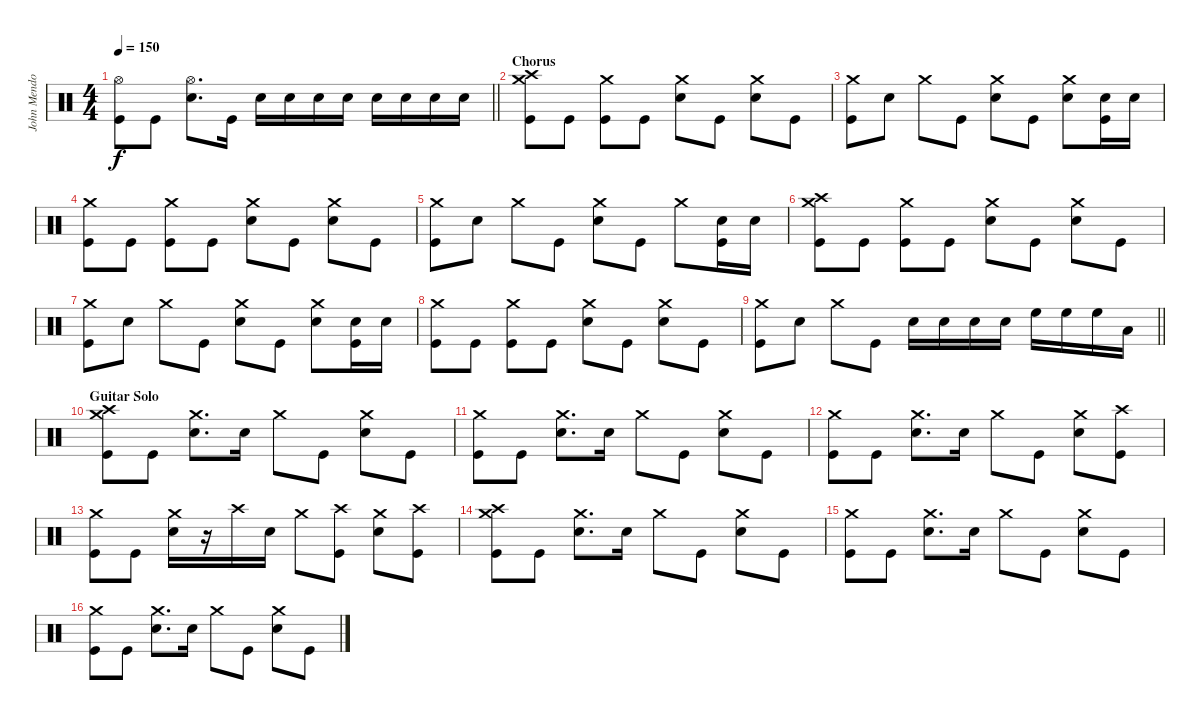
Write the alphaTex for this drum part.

\track ("John Mendoza" "John Mendo") {instrument percussion}
\staff {score}
\articulation defaults
\ts (4 4)
\tempo 150
\clef neutral
\barLineRight lightlight
\ks c
("Hi-Hat (open)" "Kick (hit)").8{dy f} "Kick (hit)".8 ("Hi-Hat (open)" "Snare (hit) 2").8{d} "Kick (hit)".16 "Snare (hit) 2".16 "Snare (hit) 2".16 "Snare (hit) 2".16 "Snare (hit) 2".16 "Snare (hit) 2".16 "Snare (hit) 2".16 "Snare (hit) 2".16 "Snare (hit) 2".16 |
\section ("" "Chorus")
("Crash medium (hit)" "Crash high (hit)" "Kick (hit)").8 "Kick (hit)".8 ("Crash medium (hit)" "Kick (hit)").8 "Kick (hit)".8 ("Crash medium (hit)" "Snare (hit) 2").8 "Kick (hit)".8 ("Crash medium (hit)" "Snare (hit) 2").8 "Kick (hit)".8 |
("Crash medium (hit)" "Kick (hit)").8 "Snare (hit) 2".8 "Crash medium (hit)".8 "Kick (hit)".8 ("Crash medium (hit)" "Snare (hit) 2").8 "Kick (hit)".8 ("Crash medium (hit)" "Snare (hit) 2").8 ("Snare (hit) 2" "Kick (hit)").16 "Snare (hit) 2".16 |
("Crash medium (hit)" "Kick (hit)").8 "Kick (hit)".8 ("Crash medium (hit)" "Kick (hit)").8 "Kick (hit)".8 ("Crash medium (hit)" "Snare (hit) 2").8 "Kick (hit)".8 ("Crash medium (hit)" "Snare (hit) 2").8 "Kick (hit)".8 |
("Crash medium (hit)" "Kick (hit)").8 "Snare (hit) 2".8 "Crash medium (hit)".8 "Kick (hit)".8 ("Crash medium (hit)" "Snare (hit) 2").8 "Kick (hit)".8 "Crash medium (hit)".8 ("Snare (hit) 2" "Kick (hit)").16 "Snare (hit) 2".16 |
("Crash medium (hit)" "Crash high (hit)" "Kick (hit)").8 "Kick (hit)".8 ("Crash medium (hit)" "Kick (hit)").8 "Kick (hit)".8 ("Crash medium (hit)" "Snare (hit) 2").8 "Kick (hit)".8 ("Crash medium (hit)" "Snare (hit) 2").8 "Kick (hit)".8 |
("Crash medium (hit)" "Kick (hit)").8 "Snare (hit) 2".8 "Crash medium (hit)".8 "Kick (hit)".8 ("Crash medium (hit)" "Snare (hit) 2").8 "Kick (hit)".8 ("Crash medium (hit)" "Snare (hit) 2").8 ("Snare (hit) 2" "Kick (hit)").16 "Snare (hit) 2".16 |
("Crash medium (hit)" "Kick (hit)").8 "Kick (hit)".8 ("Crash medium (hit)" "Kick (hit)").8 "Kick (hit)".8 ("Crash medium (hit)" "Snare (hit) 2").8 "Kick (hit)".8 ("Crash medium (hit)" "Snare (hit) 2").8 "Kick (hit)".8 |
\barLineRight lightlight
("Crash medium (hit)" "Kick (hit)").8 "Snare (hit) 2".8 "Crash medium (hit)".8 "Kick (hit)".8 "Snare (hit) 2".16 "Snare (hit) 2".16 "Snare (hit) 2".16 "Snare (hit) 2".16 "High Floor Tom (hit)".16 "High Floor Tom (hit)".16 "High Floor Tom (hit)".16 "Low Tom (hit)".16 |
\section ("" "Guitar Solo")
("Crash medium (hit)" "Crash high (hit)" "Kick (hit)").8 "Kick (hit)".8 ("Crash medium (hit)" "Snare (hit) 2").8{d} "Snare (hit) 2".16 "Crash medium (hit)".8 "Kick (hit)".8 ("Crash medium (hit)" "Snare (hit) 2").8 "Kick (hit)".8 |
("Crash medium (hit)" "Kick (hit)").8 "Kick (hit)".8 ("Crash medium (hit)" "Snare (hit) 2").8{d} "Snare (hit) 2".16 "Crash medium (hit)".8 "Kick (hit)".8 ("Crash medium (hit)" "Snare (hit) 2").8 "Kick (hit)".8 |
("Crash medium (hit)" "Kick (hit)").8 "Kick (hit)".8 ("Crash medium (hit)" "Snare (hit) 2").8{d} "Snare (hit) 2".16 "Crash medium (hit)".8 "Kick (hit)".8 ("Crash medium (hit)" "Snare (hit) 2").8 ("Crash high (hit)" "Kick (hit)").8 |
("Crash medium (hit)" "Kick (hit)").8 "Kick (hit)".8 ("Crash medium (hit)" "Snare (hit) 2").16 r.16 "Crash high (hit)".16 "Snare (hit) 2".16 "Crash medium (hit)".8 ("Crash high (hit)" "Kick (hit)").8 ("Crash medium (hit)" "Snare (hit) 2").8 ("Crash high (hit)" "Kick (hit)").8 |
("Crash medium (hit)" "Crash high (hit)" "Kick (hit)").8 "Kick (hit)".8 ("Crash medium (hit)" "Snare (hit) 2").8{d} "Snare (hit) 2".16 "Crash medium (hit)".8 "Kick (hit)".8 ("Crash medium (hit)" "Snare (hit) 2").8 "Kick (hit)".8 |
("Crash medium (hit)" "Kick (hit)").8 "Kick (hit)".8 ("Crash medium (hit)" "Snare (hit) 2").8{d} "Snare (hit) 2".16 "Crash medium (hit)".8 "Kick (hit)".8 ("Crash medium (hit)" "Snare (hit) 2").8 "Kick (hit)".8 |
("Crash medium (hit)" "Kick (hit)").8 "Kick (hit)".8 ("Crash medium (hit)" "Snare (hit) 2").8{d} "Snare (hit) 2".16 "Crash medium (hit)".8 "Kick (hit)".8 ("Crash medium (hit)" "Snare (hit) 2").8 "Kick (hit)".8
